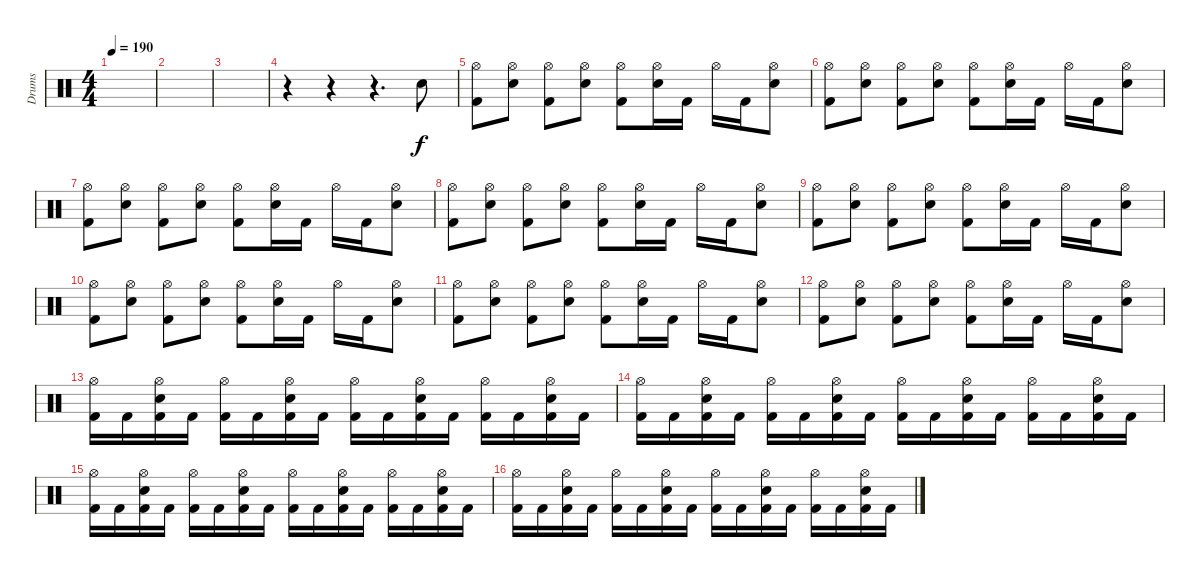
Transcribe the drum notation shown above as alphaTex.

\track ("Drums" "Drums") {instrument percussion}
\staff {score}
\articulation defaults
\ts (4 4)
\tempo 190
\clef neutral
\ks c
|
|
|
r.4 r.4 r.4{d} "Electric Snare (hit)".8 |
("Hi-Hat (open)" "Kick (hit) 2").8 ("Hi-Hat (open)" "Electric Snare (hit)").8 ("Hi-Hat (open)" "Kick (hit) 2").8 ("Hi-Hat (open)" "Electric Snare (hit)").8 ("Hi-Hat (open)" "Kick (hit) 2").8 ("Hi-Hat (open)" "Electric Snare (hit)").16 "Kick (hit) 2".16 "Hi-Hat (open)".16 "Kick (hit) 2".16 ("Hi-Hat (open)" "Electric Snare (hit)").8 |
("Hi-Hat (open)" "Kick (hit) 2").8 ("Hi-Hat (open)" "Electric Snare (hit)").8 ("Hi-Hat (open)" "Kick (hit) 2").8 ("Hi-Hat (open)" "Electric Snare (hit)").8 ("Hi-Hat (open)" "Kick (hit) 2").8 ("Hi-Hat (open)" "Electric Snare (hit)").16 "Kick (hit) 2".16 "Hi-Hat (open)".16 "Kick (hit) 2".16 ("Hi-Hat (open)" "Electric Snare (hit)").8 |
("Hi-Hat (open)" "Kick (hit) 2").8 ("Hi-Hat (open)" "Electric Snare (hit)").8 ("Hi-Hat (open)" "Kick (hit) 2").8 ("Hi-Hat (open)" "Electric Snare (hit)").8 ("Hi-Hat (open)" "Kick (hit) 2").8 ("Hi-Hat (open)" "Electric Snare (hit)").16 "Kick (hit) 2".16 "Hi-Hat (open)".16 "Kick (hit) 2".16 ("Hi-Hat (open)" "Electric Snare (hit)").8 |
("Hi-Hat (open)" "Kick (hit) 2").8 ("Hi-Hat (open)" "Electric Snare (hit)").8 ("Hi-Hat (open)" "Kick (hit) 2").8 ("Hi-Hat (open)" "Electric Snare (hit)").8 ("Hi-Hat (open)" "Kick (hit) 2").8 ("Hi-Hat (open)" "Electric Snare (hit)").16 "Kick (hit) 2".16 "Hi-Hat (open)".16 "Kick (hit) 2".16 ("Hi-Hat (open)" "Electric Snare (hit)").8 |
("Hi-Hat (open)" "Kick (hit) 2").8 ("Hi-Hat (open)" "Electric Snare (hit)").8 ("Hi-Hat (open)" "Kick (hit) 2").8 ("Hi-Hat (open)" "Electric Snare (hit)").8 ("Hi-Hat (open)" "Kick (hit) 2").8 ("Hi-Hat (open)" "Electric Snare (hit)").16 "Kick (hit) 2".16 "Hi-Hat (open)".16 "Kick (hit) 2".16 ("Hi-Hat (open)" "Electric Snare (hit)").8 |
("Hi-Hat (open)" "Kick (hit) 2").8 ("Hi-Hat (open)" "Electric Snare (hit)").8 ("Hi-Hat (open)" "Kick (hit) 2").8 ("Hi-Hat (open)" "Electric Snare (hit)").8 ("Hi-Hat (open)" "Kick (hit) 2").8 ("Hi-Hat (open)" "Electric Snare (hit)").16 "Kick (hit) 2".16 "Hi-Hat (open)".16 "Kick (hit) 2".16 ("Hi-Hat (open)" "Electric Snare (hit)").8 |
("Hi-Hat (open)" "Kick (hit) 2").8 ("Hi-Hat (open)" "Electric Snare (hit)").8 ("Hi-Hat (open)" "Kick (hit) 2").8 ("Hi-Hat (open)" "Electric Snare (hit)").8 ("Hi-Hat (open)" "Kick (hit) 2").8 ("Hi-Hat (open)" "Electric Snare (hit)").16 "Kick (hit) 2".16 "Hi-Hat (open)".16 "Kick (hit) 2".16 ("Hi-Hat (open)" "Electric Snare (hit)").8 |
("Hi-Hat (open)" "Kick (hit) 2").8 ("Hi-Hat (open)" "Electric Snare (hit)").8 ("Hi-Hat (open)" "Kick (hit) 2").8 ("Hi-Hat (open)" "Electric Snare (hit)").8 ("Hi-Hat (open)" "Kick (hit) 2").8 ("Hi-Hat (open)" "Electric Snare (hit)").16 "Kick (hit) 2".16 "Hi-Hat (open)".16 "Kick (hit) 2".16 ("Hi-Hat (open)" "Electric Snare (hit)").8 |
("Hi-Hat (open)" "Kick (hit) 2").16 "Kick (hit) 2".16 ("Hi-Hat (open)" "Electric Snare (hit)" "Kick (hit) 2").16 "Kick (hit) 2".16 ("Hi-Hat (open)" "Kick (hit) 2").16 "Kick (hit) 2".16 ("Hi-Hat (open)" "Electric Snare (hit)" "Kick (hit) 2").16 "Kick (hit) 2".16 ("Hi-Hat (open)" "Kick (hit) 2").16 "Kick (hit) 2".16 ("Hi-Hat (open)" "Electric Snare (hit)" "Kick (hit) 2").16 "Kick (hit) 2".16 ("Hi-Hat (open)" "Kick (hit) 2").16 "Kick (hit) 2".16 ("Hi-Hat (open)" "Electric Snare (hit)" "Kick (hit) 2").16 "Kick (hit) 2".16 |
("Hi-Hat (open)" "Kick (hit) 2").16 "Kick (hit) 2".16 ("Hi-Hat (open)" "Electric Snare (hit)" "Kick (hit) 2").16 "Kick (hit) 2".16 ("Hi-Hat (open)" "Kick (hit) 2").16 "Kick (hit) 2".16 ("Hi-Hat (open)" "Electric Snare (hit)" "Kick (hit) 2").16 "Kick (hit) 2".16 ("Hi-Hat (open)" "Kick (hit) 2").16 "Kick (hit) 2".16 ("Hi-Hat (open)" "Electric Snare (hit)" "Kick (hit) 2").16 "Kick (hit) 2".16 ("Hi-Hat (open)" "Kick (hit) 2").16 "Kick (hit) 2".16 ("Hi-Hat (open)" "Electric Snare (hit)" "Kick (hit) 2").16 "Kick (hit) 2".16 |
("Hi-Hat (open)" "Kick (hit) 2").16 "Kick (hit) 2".16 ("Hi-Hat (open)" "Electric Snare (hit)" "Kick (hit) 2").16 "Kick (hit) 2".16 ("Hi-Hat (open)" "Kick (hit) 2").16 "Kick (hit) 2".16 ("Hi-Hat (open)" "Electric Snare (hit)" "Kick (hit) 2").16 "Kick (hit) 2".16 ("Hi-Hat (open)" "Kick (hit) 2").16 "Kick (hit) 2".16 ("Hi-Hat (open)" "Electric Snare (hit)" "Kick (hit) 2").16 "Kick (hit) 2".16 ("Hi-Hat (open)" "Kick (hit) 2").16 "Kick (hit) 2".16 ("Hi-Hat (open)" "Electric Snare (hit)" "Kick (hit) 2").16 "Kick (hit) 2".16 |
("Hi-Hat (open)" "Kick (hit) 2").16 "Kick (hit) 2".16 ("Hi-Hat (open)" "Electric Snare (hit)" "Kick (hit) 2").16 "Kick (hit) 2".16 ("Hi-Hat (open)" "Kick (hit) 2").16 "Kick (hit) 2".16 ("Hi-Hat (open)" "Electric Snare (hit)" "Kick (hit) 2").16 "Kick (hit) 2".16 ("Hi-Hat (open)" "Kick (hit) 2").16 "Kick (hit) 2".16 ("Hi-Hat (open)" "Electric Snare (hit)" "Kick (hit) 2").16 "Kick (hit) 2".16 ("Hi-Hat (open)" "Kick (hit) 2").16 "Kick (hit) 2".16 ("Hi-Hat (open)" "Electric Snare (hit)" "Kick (hit) 2").16 "Kick (hit) 2".16
